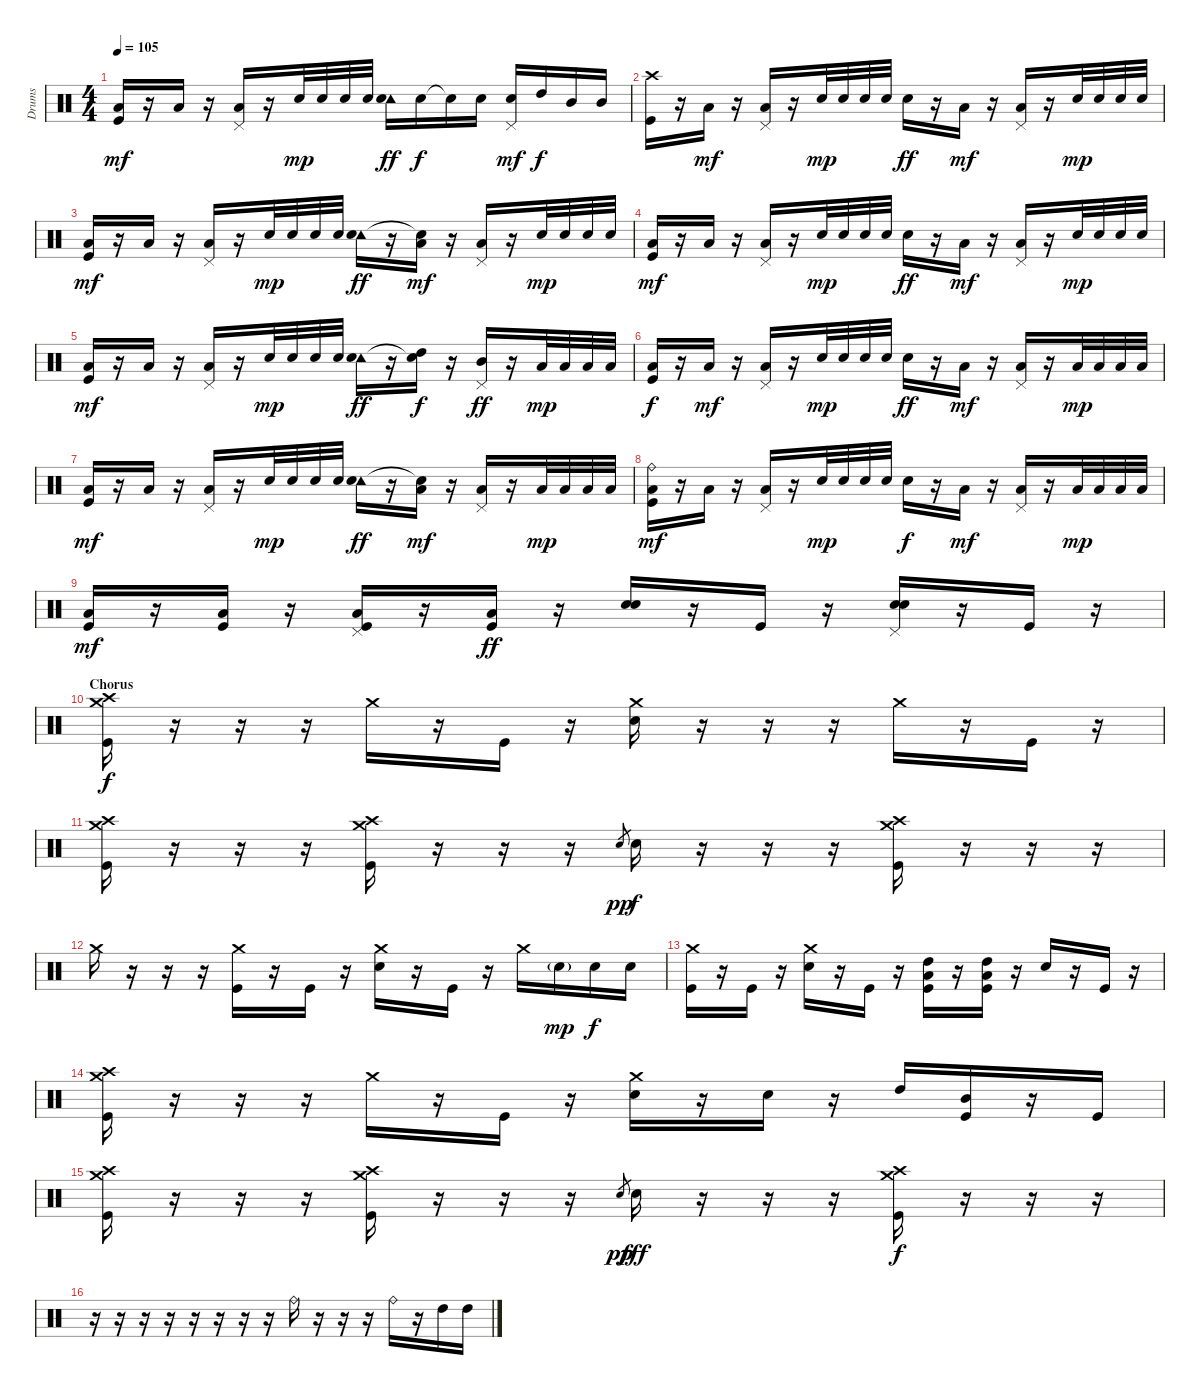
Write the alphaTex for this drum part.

\track ("Drums" "Drums") {instrument percussion}
\staff {score}
\articulation defaults
\ts (4 4)
\tempo 105
\clef neutral
\ks c
("Low Tom (hit)" "Kick (hit)").16{dy mf} r.16 "Low Tom (hit)".16 r.16 ("Pedal Hi-Hat (hit)" "Low Tom (hit)").16 r.16 "Snare (hit) 2".32{dy mp} "Snare (hit) 2".32 "Snare (hit) 2".32 "Snare (hit) 2".32 ("Tambourine (hit)" "Snare (hit) 2").16{dy ff} "Snare (hit) 2".16{dy f} "Snare (hit)"{t}.16 "Snare (hit) 2".16 ("Pedal Hi-Hat (hit)" "Snare (hit) 2").16{dy mf} "High Tom (hit)".16{dy f} "Mid Tom (hit)".16 "Mid Tom (hit)".16 |
("Crash high (hit)" "Kick (hit)").16 r.16 "Low Tom (hit)".16{dy mf} r.16 ("Pedal Hi-Hat (hit)" "Low Tom (hit)").16 r.16 "Snare (hit) 2".32{dy mp} "Snare (hit) 2".32 "Snare (hit) 2".32 "Snare (hit) 2".32 "Snare (hit) 2".16{dy ff} r.16 "Low Tom (hit)".16{dy mf} r.16 ("Pedal Hi-Hat (hit)" "Low Tom (hit)").16 r.16 "Snare (hit) 2".32{dy mp} "Snare (hit) 2".32 "Snare (hit) 2".32 "Snare (hit) 2".32 |
("Low Tom (hit)" "Kick (hit)").16{dy mf} r.16 "Low Tom (hit)".16 r.16 ("Pedal Hi-Hat (hit)" "Low Tom (hit)").16 r.16 "Snare (hit) 2".32{dy mp} "Snare (hit) 2".32 "Snare (hit) 2".32 "Snare (hit) 2".32 ("Tambourine (hit)" "Snare (hit) 2").16{dy ff} r.16 ("Snare (hit)"{t} "Low Tom (hit)").16{dy mf} r.16 ("Pedal Hi-Hat (hit)" "Low Tom (hit)").16 r.16 "Snare (hit) 2".32{dy mp} "Snare (hit) 2".32 "Snare (hit) 2".32 "Snare (hit) 2".32 |
("Low Tom (hit)" "Kick (hit)").16{dy mf} r.16 "Low Tom (hit)".16 r.16 ("Pedal Hi-Hat (hit)" "Low Tom (hit)").16 r.16 "Snare (hit) 2".32{dy mp} "Snare (hit) 2".32 "Snare (hit) 2".32 "Snare (hit) 2".32 "Snare (hit) 2".16{dy ff} r.16 "Low Tom (hit)".16{dy mf} r.16 ("Pedal Hi-Hat (hit)" "Low Tom (hit)").16 r.16 "Snare (hit) 2".32{dy mp} "Snare (hit) 2".32 "Snare (hit) 2".32 "Snare (hit) 2".32 |
("Low Tom (hit)" "Kick (hit)").16{dy mf} r.16 "Low Tom (hit)".16 r.16 ("Pedal Hi-Hat (hit)" "Low Tom (hit)").16 r.16 "Snare (hit) 2".32{dy mp} "Snare (hit) 2".32 "Snare (hit) 2".32 "Snare (hit) 2".32 ("Tambourine (hit)" "Snare (hit) 2").16{dy ff} r.16 ("Snare (hit)"{t} "High Tom (hit)").16{dy f} r.16 ("Pedal Hi-Hat (hit)" "Mid Tom (hit)").16{dy ff} r.16 "Low Tom (hit)".32{dy mp} "Low Tom (hit)".32 "Low Tom (hit)".32 "Low Tom (hit)".32 |
("Low Tom (hit)" "Kick (hit)").16{dy f} r.16 "Low Tom (hit)".16{dy mf} r.16 ("Pedal Hi-Hat (hit)" "Low Tom (hit)").16 r.16 "Snare (hit) 2".32{dy mp} "Snare (hit) 2".32 "Snare (hit) 2".32 "Snare (hit) 2".32 "Snare (hit) 2".16{dy ff} r.16 "Low Tom (hit)".16{dy mf} r.16 ("Pedal Hi-Hat (hit)" "Low Tom (hit)").16 r.16 "Low Tom (hit)".32{dy mp} "Low Tom (hit)".32 "Low Tom (hit)".32 "Low Tom (hit)".32 |
("Low Tom (hit)" "Kick (hit)").16{dy mf} r.16 "Low Tom (hit)".16 r.16 ("Pedal Hi-Hat (hit)" "Low Tom (hit)").16 r.16 "Snare (hit) 2".32{dy mp} "Snare (hit) 2".32 "Snare (hit) 2".32 "Snare (hit) 2".32 ("Tambourine (hit)" "Snare (hit) 2").16{dy ff} r.16 ("Snare (hit)"{t} "Low Tom (hit)").16{dy mf} r.16 ("Pedal Hi-Hat (hit)" "Low Tom (hit)").16 r.16 "Low Tom (hit)".32{dy mp} "Low Tom (hit)".32 "Low Tom (hit)".32 "Low Tom (hit)".32 |
("Ride (bell)" "Low Tom (hit)" "Kick (hit)").16{dy mf} r.16 "Low Tom (hit)".16 r.16 ("Pedal Hi-Hat (hit)" "Low Tom (hit)").16 r.16 "Snare (hit) 2".32{dy mp} "Snare (hit) 2".32 "Snare (hit) 2".32 "Snare (hit) 2".32 "Snare (hit) 2".16{dy f} r.16 "Low Tom (hit)".16{dy mf} r.16 ("Pedal Hi-Hat (hit)" "Low Tom (hit)").16 r.16 "Low Tom (hit)".32{dy mp} "Low Tom (hit)".32 "Low Tom (hit)".32 "Low Tom (hit)".32 |
("Low Tom (hit)" "Kick (hit)").16{dy mf} r.16 ("Low Tom (hit)" "Kick (hit)").16 r.16 ("Pedal Hi-Hat (hit)" "Low Tom (hit)" "Kick (hit)").16 r.16 ("Low Tom (hit)" "Kick (hit)").16{dy ff} r.16 ("Snare (hit) 2" "Snare (hit) 2").16{bu 120} r.16 "Kick (hit)".16 r.16 ("Pedal Hi-Hat (hit)" "Snare (hit) 2" "Snare (hit) 2").16{bu 120} r.16 "Kick (hit)".16 r.16 |
\section ("" "Chorus")
("Crash high (hit)" "Crash medium (hit)" "Kick (hit)").16{dy f} r.16 r.16 r.16 "Crash medium (hit)".16 r.16 "Kick (hit)".16 r.16 ("Crash medium (hit)" "Snare (hit) 2").16 r.16 r.16 r.16 "Crash medium (hit)".16 r.16 "Kick (hit)".16 r.16 |
("Crash high (hit)" "Crash medium (hit)" "Kick (hit)").16 r.16 r.16 r.16 ("Crash high (hit)" "Crash medium (hit)" "Kick (hit)").16 r.16 r.16 r.16 "Snare (hit) 2".8{gr dy pp} "Snare (hit) 2".16{dy f} r.16 r.16 r.16 ("Crash high (hit)" "Crash medium (hit)" "Kick (hit)").16 r.16 r.16 r.16 |
"Crash medium (hit)".16 r.16 r.16 r.16 ("Crash medium (hit)" "Kick (hit)").16 r.16 "Kick (hit)".16 r.16 ("Crash medium (hit)" "Snare (hit) 2").16 r.16 "Kick (hit)".16 r.16 "Crash medium (hit)".16 "Snare (hit) 2"{g}.16{dy mp} "Snare (hit) 2".16{dy f} "Snare (hit) 2".16 |
("Crash medium (hit)" "Kick (hit)").16 r.16 "Kick (hit)".16 r.16 ("Crash medium (hit)" "Snare (hit) 2").16 r.16 "Kick (hit)".16 r.16 ("High Tom (hit)" "Low Tom (hit)" "Kick (hit)").16 r.16 ("High Tom (hit)" "Low Tom (hit)" "Kick (hit)").16 r.16 "Snare (hit) 2".16 r.16 "Kick (hit)".16 r.16 |
("Crash high (hit)" "Crash medium (hit)" "Kick (hit)").16 r.16 r.16 r.16 "Crash medium (hit)".16 r.16 "Kick (hit)".16 r.16 ("Crash medium (hit)" "Snare (hit) 2").16 r.16 "Snare (hit) 2".16 r.16 "High Tom (hit)".16 ("Mid Tom (hit)" "Kick (hit)").16 r.16 "Kick (hit)".16 |
("Crash high (hit)" "Crash medium (hit)" "Kick (hit)").16 r.16 r.16 r.16 ("Crash high (hit)" "Crash medium (hit)" "Kick (hit)").16 r.16 r.16 r.16 "Snare (hit) 2".8{gr dy pp} "Snare (hit) 2".16{dy fff} r.16 r.16 r.16 ("Crash high (hit)" "Crash medium (hit)" "Kick (hit)").16{dy f} r.16 r.16 r.16 |
r.16 r.16 r.16 r.16 r.16 r.16 r.16 r.16 "Ride (bell)".16 r.16 r.16 r.16 "Ride (bell)".16 r.16 "High Tom (hit)".16 "High Tom (hit)".16
